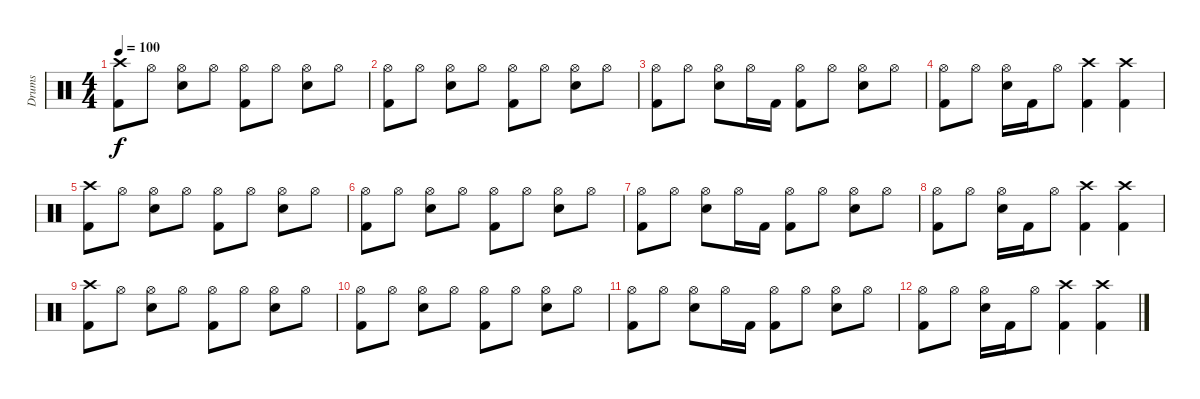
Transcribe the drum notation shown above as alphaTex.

\track ("Drums" "Drums") {instrument percussion}
\staff {score}
\articulation defaults
\ts (4 4)
\tempo 100
\clef neutral
\ks c
("Crash high (hit)" "Kick (hit) 2").8{dy f} "Hi-Hat (open)".8 ("Hi-Hat (open)" "Electric Snare (hit)").8 "Hi-Hat (open)".8 ("Hi-Hat (open)" "Kick (hit) 2").8 "Hi-Hat (open)".8 ("Hi-Hat (open)" "Electric Snare (hit)").8 "Hi-Hat (open)".8 |
("Hi-Hat (open)" "Kick (hit) 2").8 "Hi-Hat (open)".8 ("Hi-Hat (open)" "Electric Snare (hit)").8 "Hi-Hat (open)".8 ("Hi-Hat (open)" "Kick (hit) 2").8 "Hi-Hat (open)".8 ("Hi-Hat (open)" "Electric Snare (hit)").8 "Hi-Hat (open)".8 |
("Hi-Hat (open)" "Kick (hit) 2").8 "Hi-Hat (open)".8 ("Hi-Hat (open)" "Electric Snare (hit)").8 "Hi-Hat (open)".16 "Kick (hit) 2".16 ("Hi-Hat (open)" "Kick (hit) 2").8 "Hi-Hat (open)".8 ("Hi-Hat (open)" "Electric Snare (hit)").8 "Hi-Hat (open)".8 |
("Hi-Hat (open)" "Kick (hit) 2").8 "Hi-Hat (open)".8 ("Hi-Hat (open)" "Electric Snare (hit)").16 "Kick (hit) 2".16 "Hi-Hat (open)".8 ("Crash high (hit)" "Kick (hit) 2").4 ("Crash high (hit)" "Kick (hit) 2").4 |
("Crash high (hit)" "Kick (hit) 2").8 "Hi-Hat (open)".8 ("Hi-Hat (open)" "Electric Snare (hit)").8 "Hi-Hat (open)".8 ("Hi-Hat (open)" "Kick (hit) 2").8 "Hi-Hat (open)".8 ("Hi-Hat (open)" "Electric Snare (hit)").8 "Hi-Hat (open)".8 |
("Hi-Hat (open)" "Kick (hit) 2").8 "Hi-Hat (open)".8 ("Hi-Hat (open)" "Electric Snare (hit)").8 "Hi-Hat (open)".8 ("Hi-Hat (open)" "Kick (hit) 2").8 "Hi-Hat (open)".8 ("Hi-Hat (open)" "Electric Snare (hit)").8 "Hi-Hat (open)".8 |
("Hi-Hat (open)" "Kick (hit) 2").8 "Hi-Hat (open)".8 ("Hi-Hat (open)" "Electric Snare (hit)").8 "Hi-Hat (open)".16 "Kick (hit) 2".16 ("Hi-Hat (open)" "Kick (hit) 2").8 "Hi-Hat (open)".8 ("Hi-Hat (open)" "Electric Snare (hit)").8 "Hi-Hat (open)".8 |
("Hi-Hat (open)" "Kick (hit) 2").8 "Hi-Hat (open)".8 ("Hi-Hat (open)" "Electric Snare (hit)").16 "Kick (hit) 2".16 "Hi-Hat (open)".8 ("Crash high (hit)" "Kick (hit) 2").4 ("Crash high (hit)" "Kick (hit) 2").4 |
("Crash high (hit)" "Kick (hit) 2").8 "Hi-Hat (open)".8 ("Hi-Hat (open)" "Electric Snare (hit)").8 "Hi-Hat (open)".8 ("Hi-Hat (open)" "Kick (hit) 2").8 "Hi-Hat (open)".8 ("Hi-Hat (open)" "Electric Snare (hit)").8 "Hi-Hat (open)".8 |
("Hi-Hat (open)" "Kick (hit) 2").8 "Hi-Hat (open)".8 ("Hi-Hat (open)" "Electric Snare (hit)").8 "Hi-Hat (open)".8 ("Hi-Hat (open)" "Kick (hit) 2").8 "Hi-Hat (open)".8 ("Hi-Hat (open)" "Electric Snare (hit)").8 "Hi-Hat (open)".8 |
("Hi-Hat (open)" "Kick (hit) 2").8 "Hi-Hat (open)".8 ("Hi-Hat (open)" "Electric Snare (hit)").8 "Hi-Hat (open)".16 "Kick (hit) 2".16 ("Hi-Hat (open)" "Kick (hit) 2").8 "Hi-Hat (open)".8 ("Hi-Hat (open)" "Electric Snare (hit)").8 "Hi-Hat (open)".8 |
("Hi-Hat (open)" "Kick (hit) 2").8 "Hi-Hat (open)".8 ("Hi-Hat (open)" "Electric Snare (hit)").16 "Kick (hit) 2".16 "Hi-Hat (open)".8 ("Crash high (hit)" "Kick (hit) 2").4 ("Crash high (hit)" "Kick (hit) 2").4
